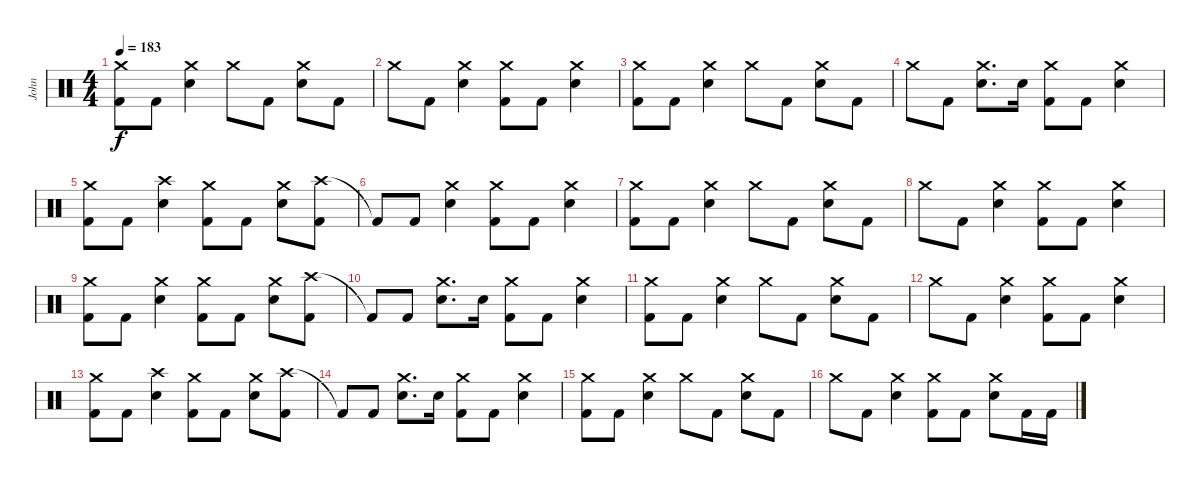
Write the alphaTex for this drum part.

\track ("John " "John ") {instrument percussion}
\staff {score}
\articulation defaults
\ts (4 4)
\tempo 183
\clef neutral
\ks c
("Crash medium (hit)" "Kick (hit) 2").8{dy f} "Kick (hit) 2".8 ("Crash medium (hit)" "Snare (hit) 2").4 "Crash medium (hit)".8 "Kick (hit) 2".8 ("Crash medium (hit)" "Snare (hit) 2").8 "Kick (hit) 2".8 |
"Crash medium (hit)".8 "Kick (hit) 2".8 ("Crash medium (hit)" "Snare (hit) 2").4 ("Crash medium (hit)" "Kick (hit) 2").8 "Kick (hit) 2".8 ("Crash medium (hit)" "Snare (hit) 2").4 |
("Crash medium (hit)" "Kick (hit) 2").8 "Kick (hit) 2".8 ("Crash medium (hit)" "Snare (hit) 2").4 "Crash medium (hit)".8 "Kick (hit) 2".8 ("Crash medium (hit)" "Snare (hit) 2").8 "Kick (hit) 2".8 |
"Crash medium (hit)".8 "Kick (hit) 2".8 ("Crash medium (hit)" "Snare (hit) 2").8{d} "Snare (hit) 2".16 ("Crash medium (hit)" "Kick (hit) 2").8 "Kick (hit) 2".8 ("Crash medium (hit)" "Snare (hit) 2").4 |
("Crash medium (hit)" "Kick (hit) 2").8 "Kick (hit) 2".8 ("Crash high (hit)" "Snare (hit) 2").4 ("Crash medium (hit)" "Kick (hit) 2").8 "Kick (hit) 2".8 ("Crash medium (hit)" "Snare (hit) 2").8 ("Crash high (hit)" "Kick (hit) 2").8 |
"Kick (hit) 2"{t}.8 "Kick (hit) 2".8 ("Crash medium (hit)" "Snare (hit) 2").4 ("Crash medium (hit)" "Kick (hit) 2").8 "Kick (hit) 2".8 ("Crash medium (hit)" "Snare (hit) 2").4 |
("Crash medium (hit)" "Kick (hit) 2").8 "Kick (hit) 2".8 ("Crash medium (hit)" "Snare (hit) 2").4 "Crash medium (hit)".8 "Kick (hit) 2".8 ("Crash medium (hit)" "Snare (hit) 2").8 "Kick (hit) 2".8 |
"Crash medium (hit)".8 "Kick (hit) 2".8 ("Crash medium (hit)" "Snare (hit) 2").4 ("Crash medium (hit)" "Kick (hit) 2").8 "Kick (hit) 2".8 ("Crash medium (hit)" "Snare (hit) 2").4 |
("Crash medium (hit)" "Kick (hit) 2").8 "Kick (hit) 2".8 ("Crash medium (hit)" "Snare (hit) 2").4 ("Crash medium (hit)" "Kick (hit) 2").8 "Kick (hit) 2".8 ("Crash medium (hit)" "Snare (hit) 2").8 ("Crash high (hit)" "Kick (hit) 2").8 |
"Kick (hit) 2"{t}.8 "Kick (hit) 2".8 ("Crash medium (hit)" "Snare (hit) 2").8{d} "Snare (hit) 2".16 ("Crash medium (hit)" "Kick (hit) 2").8 "Kick (hit) 2".8 ("Crash medium (hit)" "Snare (hit) 2").4 |
("Crash medium (hit)" "Kick (hit) 2").8 "Kick (hit) 2".8 ("Crash medium (hit)" "Snare (hit) 2").4 "Crash medium (hit)".8 "Kick (hit) 2".8 ("Crash medium (hit)" "Snare (hit) 2").8 "Kick (hit) 2".8 |
"Crash medium (hit)".8 "Kick (hit) 2".8 ("Crash medium (hit)" "Snare (hit) 2").4 ("Crash medium (hit)" "Kick (hit) 2").8 "Kick (hit) 2".8 ("Crash medium (hit)" "Snare (hit) 2").4 |
("Crash medium (hit)" "Kick (hit) 2").8 "Kick (hit) 2".8 ("Crash high (hit)" "Snare (hit) 2").4 ("Crash medium (hit)" "Kick (hit) 2").8 "Kick (hit) 2".8 ("Crash medium (hit)" "Snare (hit) 2").8 ("Crash high (hit)" "Kick (hit) 2").8 |
"Kick (hit) 2"{t}.8 "Kick (hit) 2".8 ("Crash medium (hit)" "Snare (hit) 2").8{d} "Snare (hit) 2".16 ("Crash medium (hit)" "Kick (hit) 2").8 "Kick (hit) 2".8 ("Crash medium (hit)" "Snare (hit) 2").4 |
("Crash medium (hit)" "Kick (hit) 2").8 "Kick (hit) 2".8 ("Crash medium (hit)" "Snare (hit) 2").4 "Crash medium (hit)".8 "Kick (hit) 2".8 ("Crash medium (hit)" "Snare (hit) 2").8 "Kick (hit) 2".8 |
"Crash medium (hit)".8 "Kick (hit) 2".8 ("Crash medium (hit)" "Snare (hit) 2").4 ("Crash medium (hit)" "Kick (hit) 2").8 "Kick (hit) 2".8 ("Crash medium (hit)" "Snare (hit) 2").8 "Kick (hit) 2".16 "Kick (hit) 2".16
